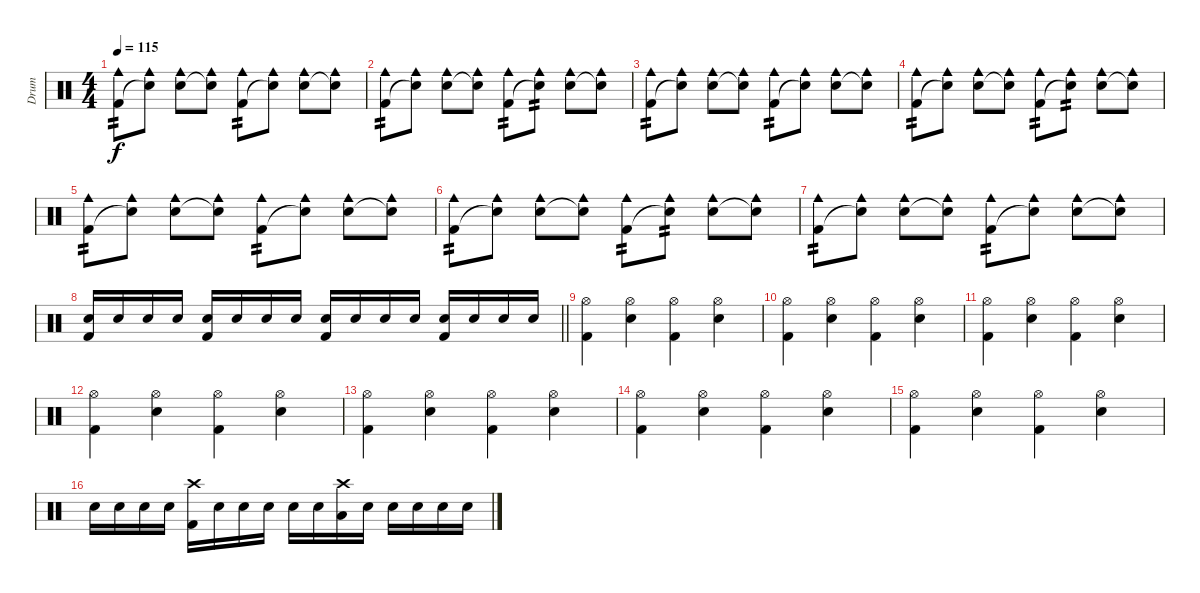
\track ("Drum" "Drum") {instrument percussion}
\staff {score}
\articulation defaults
\ts (4 4)
\section ("" "")
\tempo 115
\clef neutral
\ks c
("Kick (hit) 2" "Cowbell medium (hit)").8{tp 2 dy f} ("Snare (hit)"{t} "Cowbell medium (hit)").8 ("Snare (hit) 2" "Cowbell medium (hit)").8 ("Snare (hit)"{t} "Cowbell medium (hit)").8 ("Kick (hit) 2" "Cowbell medium (hit)").8{tp 2} ("Snare (hit)"{t} "Cowbell medium (hit)").8 ("Snare (hit) 2" "Cowbell medium (hit)").8 ("Snare (hit)"{t} "Cowbell medium (hit)").8 |
("Kick (hit) 2" "Cowbell medium (hit)").8{tp 2} ("Snare (hit)"{t} "Cowbell medium (hit)").8 ("Snare (hit) 2" "Cowbell medium (hit)").8 ("Snare (hit)"{t} "Cowbell medium (hit)").8 ("Kick (hit) 2" "Cowbell medium (hit)").8{tp 2} ("Snare (hit)"{t} "Cowbell medium (hit)").8{tp 2} ("Snare (hit) 2" "Cowbell medium (hit)").8 ("Snare (hit)"{t} "Cowbell medium (hit)").8 |
("Kick (hit) 2" "Cowbell medium (hit)").8{tp 2} ("Snare (hit)"{t} "Cowbell medium (hit)").8 ("Snare (hit) 2" "Cowbell medium (hit)").8 ("Snare (hit)"{t} "Cowbell medium (hit)").8 ("Kick (hit) 2" "Cowbell medium (hit)").8{tp 2} ("Snare (hit)"{t} "Cowbell medium (hit)").8 ("Snare (hit) 2" "Cowbell medium (hit)").8 ("Snare (hit)"{t} "Cowbell medium (hit)").8 |
("Kick (hit) 2" "Cowbell medium (hit)").8{tp 2} ("Snare (hit)"{t} "Cowbell medium (hit)").8 ("Snare (hit) 2" "Cowbell medium (hit)").8 ("Snare (hit)"{t} "Cowbell medium (hit)").8 ("Kick (hit) 2" "Cowbell medium (hit)").8{tp 2} ("Snare (hit)"{t} "Cowbell medium (hit)").8{tp 2} ("Snare (hit) 2" "Cowbell medium (hit)").8 ("Snare (hit)"{t} "Cowbell medium (hit)").8 |
("Kick (hit) 2" "Cowbell medium (hit)").8{tp 2} ("Snare (hit)"{t} "Cowbell medium (hit)").8 ("Snare (hit) 2" "Cowbell medium (hit)").8 ("Snare (hit)"{t} "Cowbell medium (hit)").8 ("Kick (hit) 2" "Cowbell medium (hit)").8{tp 2} ("Snare (hit)"{t} "Cowbell medium (hit)").8 ("Snare (hit) 2" "Cowbell medium (hit)").8 ("Snare (hit)"{t} "Cowbell medium (hit)").8 |
("Kick (hit) 2" "Cowbell medium (hit)").8{tp 2} ("Snare (hit)"{t} "Cowbell medium (hit)").8 ("Snare (hit) 2" "Cowbell medium (hit)").8 ("Snare (hit)"{t} "Cowbell medium (hit)").8 ("Kick (hit) 2" "Cowbell medium (hit)").8{tp 2} ("Snare (hit)"{t} "Cowbell medium (hit)").8{tp 2} ("Snare (hit) 2" "Cowbell medium (hit)").8 ("Snare (hit)"{t} "Cowbell medium (hit)").8 |
("Kick (hit) 2" "Cowbell medium (hit)").8{tp 2} ("Snare (hit)"{t} "Cowbell medium (hit)").8 ("Snare (hit) 2" "Cowbell medium (hit)").8 ("Snare (hit)"{t} "Cowbell medium (hit)").8 ("Kick (hit) 2" "Cowbell medium (hit)").8{tp 2} ("Snare (hit)"{t} "Cowbell medium (hit)").8 ("Snare (hit) 2" "Cowbell medium (hit)").8 ("Snare (hit)"{t} "Cowbell medium (hit)").8 |
\barLineRight lightlight
("Snare (hit) 2" "Kick (hit) 2").16 "Snare (hit) 2".16 "Snare (hit) 2".16 "Snare (hit) 2".16 ("Snare (hit) 2" "Kick (hit) 2").16 "Snare (hit) 2".16 "Snare (hit) 2".16 "Snare (hit) 2".16 ("Snare (hit) 2" "Kick (hit) 2").16 "Snare (hit) 2".16 "Snare (hit) 2".16 "Snare (hit) 2".16 ("Snare (hit) 2" "Kick (hit) 2").16 "Snare (hit) 2".16 "Snare (hit) 2".16 "Snare (hit) 2".16 |
\section ("" "")
("Kick (hit) 2" "Hi-Hat (open)").4 ("Snare (hit) 2" "Hi-Hat (open)").4 ("Kick (hit) 2" "Hi-Hat (open)").4 ("Snare (hit) 2" "Hi-Hat (open)").4 |
("Kick (hit) 2" "Hi-Hat (open)").4 ("Snare (hit) 2" "Hi-Hat (open)").4 ("Kick (hit) 2" "Hi-Hat (open)").4 ("Snare (hit) 2" "Hi-Hat (open)").4 |
("Kick (hit) 2" "Hi-Hat (open)").4 ("Snare (hit) 2" "Hi-Hat (open)").4 ("Kick (hit) 2" "Hi-Hat (open)").4 ("Snare (hit) 2" "Hi-Hat (open)").4 |
("Kick (hit) 2" "Hi-Hat (open)").4 ("Snare (hit) 2" "Hi-Hat (open)").4 ("Kick (hit) 2" "Hi-Hat (open)").4 ("Snare (hit) 2" "Hi-Hat (open)").4 |
("Kick (hit) 2" "Hi-Hat (open)").4 ("Snare (hit) 2" "Hi-Hat (open)").4 ("Kick (hit) 2" "Hi-Hat (open)").4 ("Snare (hit) 2" "Hi-Hat (open)").4 |
("Kick (hit) 2" "Hi-Hat (open)").4 ("Snare (hit) 2" "Hi-Hat (open)").4 ("Kick (hit) 2" "Hi-Hat (open)").4 ("Snare (hit) 2" "Hi-Hat (open)").4 |
("Kick (hit) 2" "Hi-Hat (open)").4 ("Snare (hit) 2" "Hi-Hat (open)").4 ("Kick (hit) 2" "Hi-Hat (open)").4 ("Snare (hit) 2" "Hi-Hat (open)").4 |
"Snare (hit) 2".16 "Snare (hit) 2".16 "Snare (hit) 2".16 "Snare (hit) 2".16 ("Kick (hit) 2" "Crash high (hit)").16 "Snare (hit) 2".16 "Snare (hit) 2".16 "Snare (hit) 2".16 "Snare (hit) 2".16 "Snare (hit) 2".16 ("Low Floor Tom (hit)" "Crash high (hit)").16 "Snare (hit) 2".16 "Snare (hit) 2".16 "Snare (hit) 2".16 "Snare (hit) 2".16 "Snare (hit) 2".16
